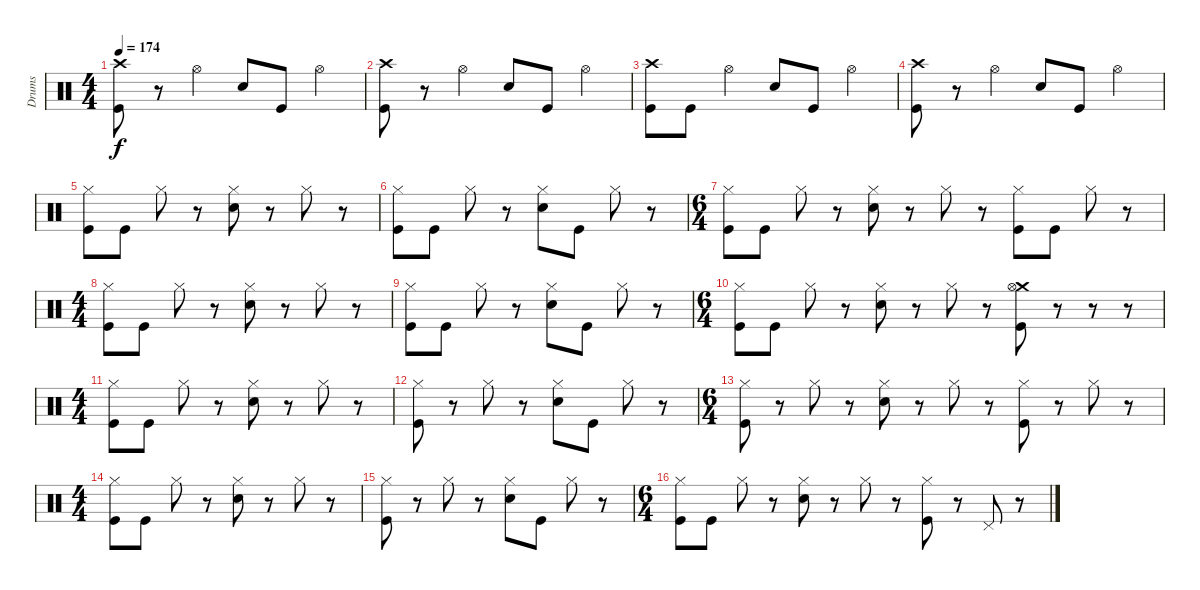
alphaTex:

\track ("Drums" "Drums") {instrument percussion}
\staff {score}
\articulation defaults
\ts (4 4)
\tempo 174
\clef neutral
\ks c
("Crash high (hit)" "Kick (hit)").8{dy f} r.8 "Hi-Hat (open)".4 "Snare (hit) 2".8 "Kick (hit)".8 "Hi-Hat (open)".4 |
("Crash high (hit)" "Kick (hit)").8 r.8 "Hi-Hat (open)".4 "Snare (hit) 2".8 "Kick (hit)".8 "Hi-Hat (open)".4 |
("Crash high (hit)" "Kick (hit)").8 "Kick (hit)".8 "Hi-Hat (open)".4 "Snare (hit) 2".8 "Kick (hit)".8 "Hi-Hat (open)".4 |
("Crash high (hit)" "Kick (hit)").8 r.8 "Hi-Hat (open)".4 "Snare (hit) 2".8 "Kick (hit)".8 "Hi-Hat (open)".4 |
("Hi-Hat (closed)" "Kick (hit)").8 "Kick (hit)".8 "Hi-Hat (closed)".8 r.8 ("Hi-Hat (closed)" "Snare (hit) 2").8 r.8 "Hi-Hat (closed)".8 r.8 |
("Hi-Hat (closed)" "Kick (hit)").8 "Kick (hit)".8 "Hi-Hat (closed)".8 r.8 ("Hi-Hat (closed)" "Snare (hit) 2").8 "Kick (hit)".8 "Hi-Hat (closed)".8 r.8 |
\ts (6 4)
("Hi-Hat (closed)" "Kick (hit)").8 "Kick (hit)".8 "Hi-Hat (closed)".8 r.8 ("Hi-Hat (closed)" "Snare (hit) 2").8 r.8 "Hi-Hat (closed)".8 r.8 ("Hi-Hat (closed)" "Kick (hit)").8 "Kick (hit)".8 "Hi-Hat (closed)".8 r.8 |
\ts (4 4)
("Hi-Hat (closed)" "Kick (hit)").8 "Kick (hit)".8 "Hi-Hat (closed)".8 r.8 ("Hi-Hat (closed)" "Snare (hit) 2").8 r.8 "Hi-Hat (closed)".8 r.8 |
("Hi-Hat (closed)" "Kick (hit)").8 "Kick (hit)".8 "Hi-Hat (closed)".8 r.8 ("Hi-Hat (closed)" "Snare (hit) 2").8 "Kick (hit)".8 "Hi-Hat (closed)".8 r.8 |
\ts (6 4)
("Hi-Hat (closed)" "Kick (hit)").8 "Kick (hit)".8 "Hi-Hat (closed)".8 r.8 ("Hi-Hat (closed)" "Snare (hit) 2").8 r.8 "Hi-Hat (closed)".8 r.8 ("Crash medium (hit)" "Hi-Hat (open)" "Kick (hit)").8 r.8 r.8 r.8 |
\ts (4 4)
("Hi-Hat (closed)" "Kick (hit)").8 "Kick (hit)".8 "Hi-Hat (closed)".8 r.8 ("Hi-Hat (closed)" "Snare (hit) 2").8 r.8 "Hi-Hat (closed)".8 r.8 |
("Hi-Hat (closed)" "Kick (hit)").8 r.8 "Hi-Hat (closed)".8 r.8 ("Hi-Hat (closed)" "Snare (hit) 2").8 "Kick (hit)".8 "Hi-Hat (closed)".8 r.8 |
\ts (6 4)
("Hi-Hat (closed)" "Kick (hit)").8 r.8 "Hi-Hat (closed)".8 r.8 ("Hi-Hat (closed)" "Snare (hit) 2").8 r.8 "Hi-Hat (closed)".8 r.8 ("Hi-Hat (closed)" "Kick (hit)").8 r.8 "Hi-Hat (closed)".8 r.8 |
\ts (4 4)
("Hi-Hat (closed)" "Kick (hit)").8 "Kick (hit)".8 "Hi-Hat (closed)".8 r.8 ("Hi-Hat (closed)" "Snare (hit) 2").8 r.8 "Hi-Hat (closed)".8 r.8 |
("Hi-Hat (closed)" "Kick (hit)").8 r.8 "Hi-Hat (closed)".8 r.8 ("Hi-Hat (closed)" "Snare (hit) 2").8 "Kick (hit)".8 "Hi-Hat (closed)".8 r.8 |
\ts (6 4)
("Hi-Hat (closed)" "Kick (hit)").8 "Kick (hit)".8 "Hi-Hat (closed)".8 r.8 ("Hi-Hat (closed)" "Snare (hit) 2").8 r.8 "Hi-Hat (closed)".8 r.8 ("Hi-Hat (closed)" "Kick (hit)").8 r.8 "Pedal Hi-Hat (hit)".8 r.8
